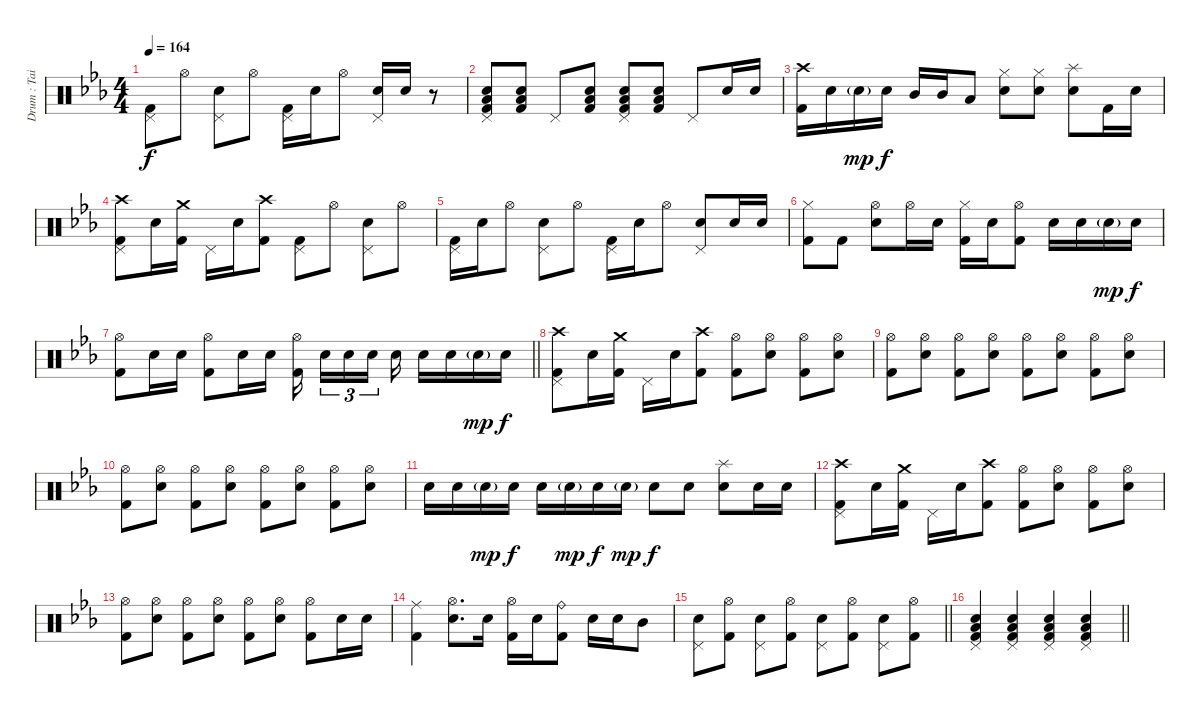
\track ("Drum : Tainaka Ritsu - Chan" "Drum : Tai") {instrument percussion}
\staff {score}
\articulation defaults
\ts (4 4)
\tempo 164
\clef neutral
\ks eb
("Pedal Hi-Hat (hit)" "Kick (hit) 2").8{dy f} "Hi-Hat (open)".8 ("Pedal Hi-Hat (hit)" "Electric Snare (hit)").8 "Hi-Hat (open)".8 ("Pedal Hi-Hat (hit)" "Kick (hit) 2").16 "Electric Snare (hit)".16 "Hi-Hat (open)".8 ("Pedal Hi-Hat (hit)" "Electric Snare (hit)").16 "Electric Snare (hit)".16 r.8 |
("Pedal Hi-Hat (hit)" "Electric Snare (hit)" "Low Floor Tom (hit)" "Kick (hit) 2").8 ("Electric Snare (hit)" "Low Floor Tom (hit)" "Kick (hit) 2").8 "Pedal Hi-Hat (hit)".8 ("Electric Snare (hit)" "Low Floor Tom (hit)" "Kick (hit) 2").8 ("Pedal Hi-Hat (hit)" "Electric Snare (hit)" "Low Floor Tom (hit)" "Kick (hit) 2").8 ("Electric Snare (hit)" "Low Floor Tom (hit)" "Kick (hit) 2").8 "Pedal Hi-Hat (hit)".8 "Electric Snare (hit)".16 "Electric Snare (hit)".16 |
("Crash high (hit)" "Kick (hit) 2").16 "Electric Snare (hit)".16 "Electric Snare (hit)"{g}.16{dy mp} "Electric Snare (hit)".16{dy f} "Mid Tom (hit)".16 "Mid Tom (hit)".16 "Low Tom (hit)".8 ("Hi-Hat (closed)" "Electric Snare (hit)").8 ("Hi-Hat (closed)" "Electric Snare (hit)").8 ("Splash (hit)" "Electric Snare (hit)").8 "Kick (hit) 2".16 "Electric Snare (hit)".16 |
("Crash high (hit)" "Pedal Hi-Hat (hit)" "Kick (hit) 2").8 "Electric Snare (hit)".16 ("Crash medium (hit)" "Kick (hit) 2").16 "Pedal Hi-Hat (hit)".16 "Electric Snare (hit)".16 ("Crash high (hit)" "Kick (hit) 2").8 ("Pedal Hi-Hat (hit)" "Kick (hit) 2").8 "Hi-Hat (open)".8 ("Pedal Hi-Hat (hit)" "Electric Snare (hit)").8 "Hi-Hat (open)".8 |
("Pedal Hi-Hat (hit)" "Kick (hit) 2").16 "Electric Snare (hit)".16 "Hi-Hat (open)".8 ("Pedal Hi-Hat (hit)" "Electric Snare (hit)").8 "Hi-Hat (open)".8 ("Pedal Hi-Hat (hit)" "Kick (hit) 2").16 "Electric Snare (hit)".16 "Hi-Hat (open)".8 ("Pedal Hi-Hat (hit)" "Electric Snare (hit)").8 "Electric Snare (hit)".16 "Electric Snare (hit)".16 |
("Hi-Hat (closed)" "Kick (hit) 2").8 "Kick (hit) 2".8 ("Hi-Hat (open)" "Electric Snare (hit)").8 "Hi-Hat (open)".16 "Electric Snare (hit)".16 ("Hi-Hat (closed)" "Kick (hit) 2").16 "Electric Snare (hit)".16 ("Hi-Hat (open)" "Kick (hit) 2").8 "Electric Snare (hit)".16 "Electric Snare (hit)".16 "Electric Snare (hit)"{g}.16{dy mp} "Electric Snare (hit)".16{dy f} |
\barLineRight lightlight
("Hi-Hat (open)" "Kick (hit) 2").8 "Electric Snare (hit)".16 "Electric Snare (hit)".16 ("Hi-Hat (open)" "Kick (hit) 2").8 "Electric Snare (hit)".16 "Electric Snare (hit)".16 ("Hi-Hat (open)" "Kick (hit) 2").16{beam splitsecondary} "Electric Snare (hit)".16{tu (3 2)} "Electric Snare (hit)".16{tu (3 2)} "Electric Snare (hit)".16{tu (3 2) beam splitsecondary} "Electric Snare (hit)".16 "Electric Snare (hit)".16 "Electric Snare (hit)".16 "Electric Snare (hit)"{g}.16{dy mp} "Electric Snare (hit)".16{dy f} |
("Crash high (hit)" "Pedal Hi-Hat (hit)" "Kick (hit) 2").8 "Electric Snare (hit)".16 ("Crash medium (hit)" "Kick (hit) 2").16 "Pedal Hi-Hat (hit)".16 "Electric Snare (hit)".16 ("Crash high (hit)" "Kick (hit) 2").8 ("Hi-Hat (open)" "Kick (hit) 2").8 ("Hi-Hat (open)" "Electric Snare (hit)").8 ("Hi-Hat (open)" "Kick (hit) 2").8 ("Hi-Hat (open)" "Electric Snare (hit)").8 |
("Hi-Hat (open)" "Kick (hit) 2").8 ("Hi-Hat (open)" "Electric Snare (hit)").8 ("Hi-Hat (open)" "Kick (hit) 2").8 ("Hi-Hat (open)" "Electric Snare (hit)").8 ("Hi-Hat (open)" "Kick (hit) 2").8 ("Hi-Hat (open)" "Electric Snare (hit)").8 ("Hi-Hat (open)" "Kick (hit) 2").8 ("Hi-Hat (open)" "Electric Snare (hit)").8 |
("Hi-Hat (open)" "Kick (hit) 2").8 ("Hi-Hat (open)" "Electric Snare (hit)").8 ("Hi-Hat (open)" "Kick (hit) 2").8 ("Hi-Hat (open)" "Electric Snare (hit)").8 ("Hi-Hat (open)" "Kick (hit) 2").8 ("Hi-Hat (open)" "Electric Snare (hit)").8 ("Hi-Hat (open)" "Kick (hit) 2").8 ("Hi-Hat (open)" "Electric Snare (hit)").8 |
"Electric Snare (hit)".16 "Electric Snare (hit)".16 "Electric Snare (hit)"{g}.16{dy mp} "Electric Snare (hit)".16{dy f} "Electric Snare (hit)".16 "Electric Snare (hit)"{g}.16{dy mp} "Electric Snare (hit)".16{dy f} "Electric Snare (hit)"{g}.16{dy mp} "Electric Snare (hit)".8{dy f} "Electric Snare (hit)".8 ("Splash (hit)" "Electric Snare (hit)").8 "Electric Snare (hit)".16 "Electric Snare (hit)".16 |
("Crash high (hit)" "Pedal Hi-Hat (hit)" "Kick (hit) 2").8 "Electric Snare (hit)".16 ("Crash medium (hit)" "Kick (hit) 2").16 "Pedal Hi-Hat (hit)".16 "Electric Snare (hit)".16 ("Crash high (hit)" "Kick (hit) 2").8 ("Hi-Hat (open)" "Kick (hit) 2").8 ("Hi-Hat (open)" "Electric Snare (hit)").8 ("Hi-Hat (open)" "Kick (hit) 2").8 ("Hi-Hat (open)" "Electric Snare (hit)").8 |
("Hi-Hat (open)" "Kick (hit) 2").8 ("Hi-Hat (open)" "Electric Snare (hit)").8 ("Hi-Hat (open)" "Kick (hit) 2").8 ("Hi-Hat (open)" "Electric Snare (hit)").8 ("Hi-Hat (open)" "Kick (hit) 2").8 ("Hi-Hat (open)" "Electric Snare (hit)").8 ("Hi-Hat (open)" "Kick (hit) 2").8 "Electric Snare (hit)".16 "Electric Snare (hit)".16 |
("Ride (middle)" "Kick (hit) 2").4 ("Hi-Hat (open)" "Electric Snare (hit)").8{d} "Electric Snare (hit)".16 ("Hi-Hat (open)" "Kick (hit) 2").16 "Electric Snare (hit)".16 ("Ride (bell)" "Kick (hit) 2").8 "Electric Snare (hit)".16 "Electric Snare (hit)".16 "Mid Tom (hit)".8 |
\barLineRight lightlight
("Pedal Hi-Hat (hit)" "Electric Snare (hit)").8 ("Hi-Hat (open)" "Kick (hit) 2").8 ("Pedal Hi-Hat (hit)" "Electric Snare (hit)").8 ("Hi-Hat (open)" "Kick (hit) 2").8 ("Pedal Hi-Hat (hit)" "Electric Snare (hit)").8 ("Hi-Hat (open)" "Kick (hit) 2").8 ("Pedal Hi-Hat (hit)" "Electric Snare (hit)").8 ("Hi-Hat (open)" "Kick (hit) 2").8 |
\barLineRight lightlight
("Pedal Hi-Hat (hit)" "Electric Snare (hit)" "Low Floor Tom (hit)" "Kick (hit) 2").4 ("Pedal Hi-Hat (hit)" "Electric Snare (hit)" "Low Floor Tom (hit)" "Kick (hit) 2").4 ("Pedal Hi-Hat (hit)" "Electric Snare (hit)" "Low Floor Tom (hit)" "Kick (hit) 2").4 ("Pedal Hi-Hat (hit)" "Electric Snare (hit)" "Low Floor Tom (hit)" "Kick (hit) 2").4
